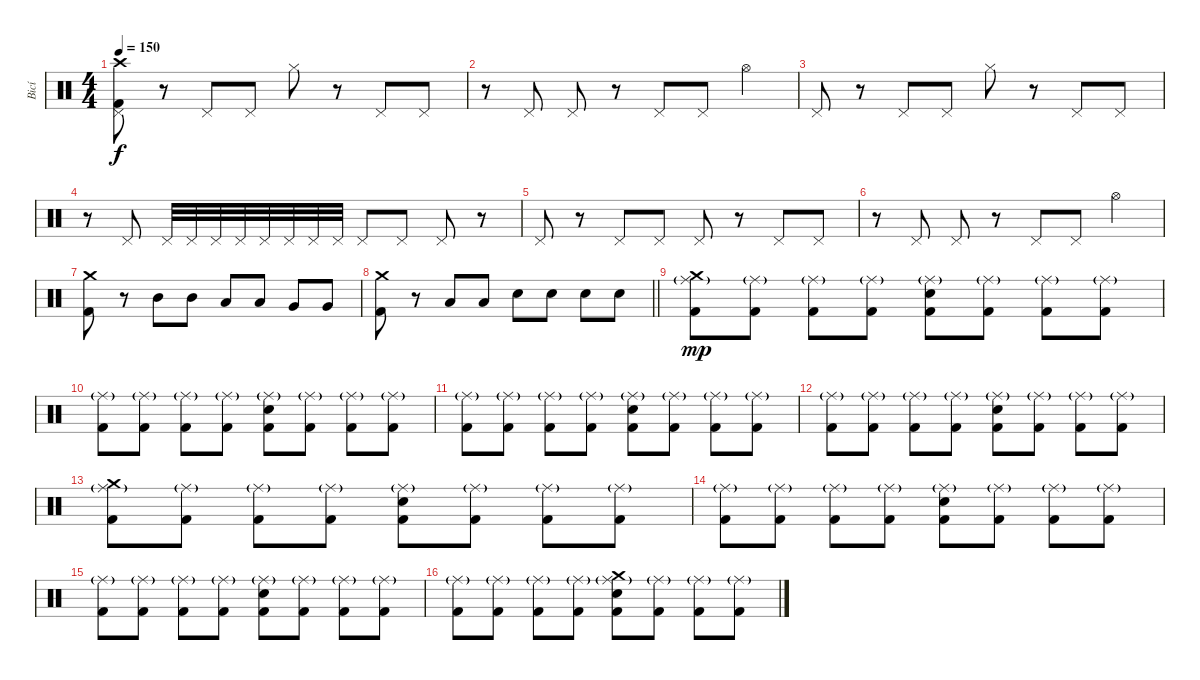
\track ("Bicí" "Bicí") {instrument percussion}
\staff {score}
\articulation defaults
\ts (4 4)
\tempo 150
\clef neutral
\ks c
("Crash high (hit)" "Pedal Hi-Hat (hit)" "Kick (hit) 2").8{dy f} r.8 "Pedal Hi-Hat (hit)".8 "Pedal Hi-Hat (hit)".8 "Hi-Hat (closed)".8 r.8 "Pedal Hi-Hat (hit)".8 "Pedal Hi-Hat (hit)".8 |
r.8 "Pedal Hi-Hat (hit)".8 "Pedal Hi-Hat (hit)".8 r.8 "Pedal Hi-Hat (hit)".8 "Pedal Hi-Hat (hit)".8 "Hi-Hat (open)".4 |
"Pedal Hi-Hat (hit)".8 r.8 "Pedal Hi-Hat (hit)".8 "Pedal Hi-Hat (hit)".8 "Hi-Hat (closed)".8 r.8 "Pedal Hi-Hat (hit)".8 "Pedal Hi-Hat (hit)".8 |
r.8 "Pedal Hi-Hat (hit)".8 "Pedal Hi-Hat (hit)".32 "Pedal Hi-Hat (hit)".32 "Pedal Hi-Hat (hit)".32 "Pedal Hi-Hat (hit)".32 "Pedal Hi-Hat (hit)".32 "Pedal Hi-Hat (hit)".32 "Pedal Hi-Hat (hit)".32 "Pedal Hi-Hat (hit)".32 "Pedal Hi-Hat (hit)".8 "Pedal Hi-Hat (hit)".8 "Pedal Hi-Hat (hit)".8 r.8 |
"Pedal Hi-Hat (hit)".8 r.8 "Pedal Hi-Hat (hit)".8 "Pedal Hi-Hat (hit)".8 "Pedal Hi-Hat (hit)".8 r.8 "Pedal Hi-Hat (hit)".8 "Pedal Hi-Hat (hit)".8 |
r.8 "Pedal Hi-Hat (hit)".8 "Pedal Hi-Hat (hit)".8 r.8 "Pedal Hi-Hat (hit)".8 "Pedal Hi-Hat (hit)".8 "Hi-Hat (open)".4 |
("Crash medium (hit)" "Kick (hit) 2").8 r.8 "Mid Tom (hit)".8 "Mid Tom (hit)".8 "Low Tom (hit)".8 "Low Tom (hit)".8 "Very Low Tom (hit)".8 "Very Low Tom (hit)".8 |
\barLineRight lightlight
("Crash medium (hit)" "Kick (hit) 2").8 r.8 "Low Tom (hit)".8 "Low Tom (hit)".8 "Electric Snare (hit)".8 "Electric Snare (hit)".8 "Electric Snare (hit)".8 "Electric Snare (hit)".8 |
\section ("" "")
("Crash medium (hit)" "Ride (middle)"{g} "Kick (hit) 2").8{dy mp} ("Ride (middle)"{g} "Kick (hit) 2").8 ("Ride (middle)"{g} "Kick (hit) 2").8 ("Ride (middle)"{g} "Kick (hit) 2").8 ("Ride (middle)"{g} "Electric Snare (hit)" "Kick (hit) 2").8 ("Ride (middle)"{g} "Kick (hit) 2").8 ("Ride (middle)"{g} "Kick (hit) 2").8 ("Ride (middle)"{g} "Kick (hit) 2").8 |
("Ride (middle)"{g} "Kick (hit) 2").8 ("Ride (middle)"{g} "Kick (hit) 2").8 ("Ride (middle)"{g} "Kick (hit) 2").8 ("Ride (middle)"{g} "Kick (hit) 2").8 ("Ride (middle)"{g} "Electric Snare (hit)" "Kick (hit) 2").8 ("Ride (middle)"{g} "Kick (hit) 2").8 ("Ride (middle)"{g} "Kick (hit) 2").8 ("Ride (middle)"{g} "Kick (hit) 2").8 |
("Ride (middle)"{g} "Kick (hit) 2").8 ("Ride (middle)"{g} "Kick (hit) 2").8 ("Ride (middle)"{g} "Kick (hit) 2").8 ("Ride (middle)"{g} "Kick (hit) 2").8 ("Ride (middle)"{g} "Electric Snare (hit)" "Kick (hit) 2").8 ("Ride (middle)"{g} "Kick (hit) 2").8 ("Ride (middle)"{g} "Kick (hit) 2").8 ("Ride (middle)"{g} "Kick (hit) 2").8 |
("Ride (middle)"{g} "Kick (hit) 2").8 ("Ride (middle)"{g} "Kick (hit) 2").8 ("Ride (middle)"{g} "Kick (hit) 2").8 ("Ride (middle)"{g} "Kick (hit) 2").8 ("Ride (middle)"{g} "Electric Snare (hit)" "Kick (hit) 2").8 ("Ride (middle)"{g} "Kick (hit) 2").8 ("Ride (middle)"{g} "Kick (hit) 2").8 ("Ride (middle)"{g} "Kick (hit) 2").8 |
("Crash medium (hit)" "Ride (middle)"{g} "Kick (hit) 2").8 ("Ride (middle)"{g} "Kick (hit) 2").8 ("Ride (middle)"{g} "Kick (hit) 2").8 ("Ride (middle)"{g} "Kick (hit) 2").8 ("Ride (middle)"{g} "Electric Snare (hit)" "Kick (hit) 2").8 ("Ride (middle)"{g} "Kick (hit) 2").8 ("Ride (middle)"{g} "Kick (hit) 2").8 ("Ride (middle)"{g} "Kick (hit) 2").8 |
("Ride (middle)"{g} "Kick (hit) 2").8 ("Ride (middle)"{g} "Kick (hit) 2").8 ("Ride (middle)"{g} "Kick (hit) 2").8 ("Ride (middle)"{g} "Kick (hit) 2").8 ("Ride (middle)"{g} "Electric Snare (hit)" "Kick (hit) 2").8 ("Ride (middle)"{g} "Kick (hit) 2").8 ("Ride (middle)"{g} "Kick (hit) 2").8 ("Ride (middle)"{g} "Kick (hit) 2").8 |
("Ride (middle)"{g} "Kick (hit) 2").8 ("Ride (middle)"{g} "Kick (hit) 2").8 ("Ride (middle)"{g} "Kick (hit) 2").8 ("Ride (middle)"{g} "Kick (hit) 2").8 ("Ride (middle)"{g} "Electric Snare (hit)" "Kick (hit) 2").8 ("Ride (middle)"{g} "Kick (hit) 2").8 ("Ride (middle)"{g} "Kick (hit) 2").8 ("Ride (middle)"{g} "Kick (hit) 2").8 |
("Ride (middle)"{g} "Kick (hit) 2").8 ("Ride (middle)"{g} "Kick (hit) 2").8 ("Ride (middle)"{g} "Kick (hit) 2").8 ("Ride (middle)"{g} "Kick (hit) 2").8 ("Crash medium (hit)" "Ride (middle)"{g} "Electric Snare (hit)" "Kick (hit) 2").8 ("Ride (middle)"{g} "Kick (hit) 2").8 ("Ride (middle)"{g} "Kick (hit) 2").8 ("Ride (middle)"{g} "Kick (hit) 2").8
